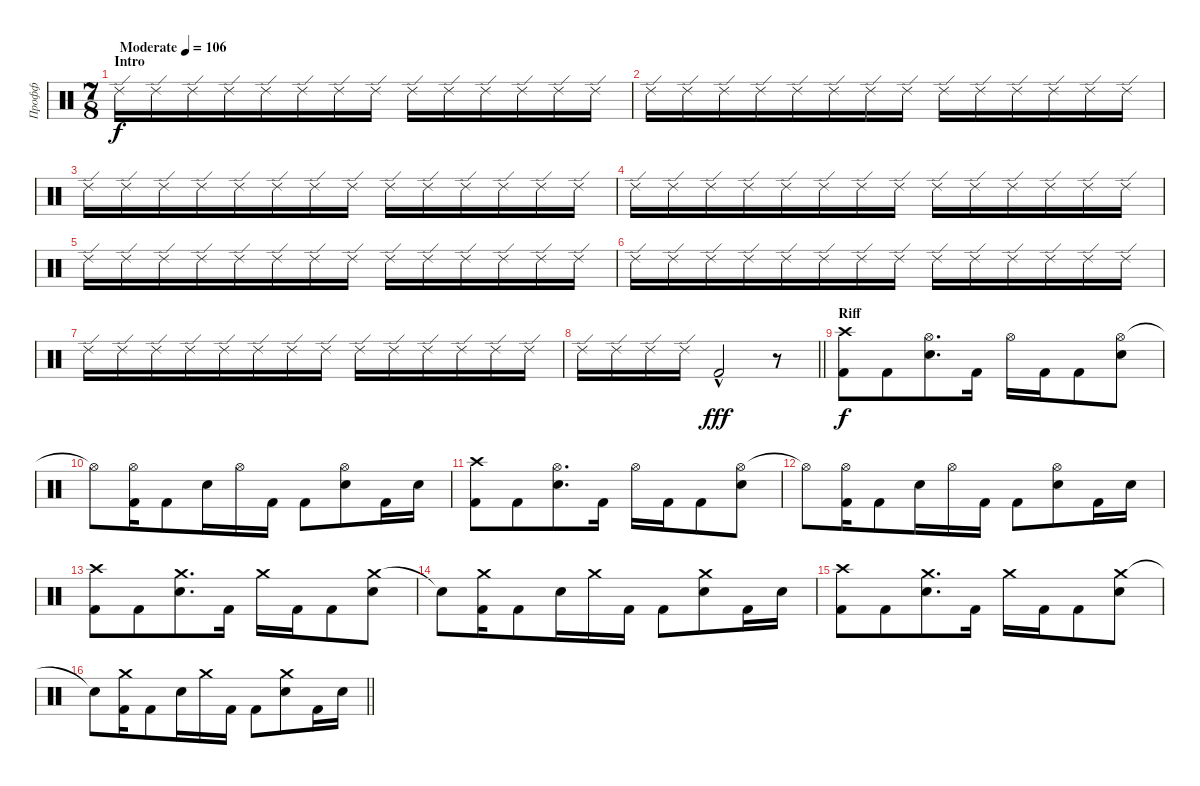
\track ("Профф" "Профф") {instrument percussion}
\staff {score}
\articulation defaults
\ts (7 8)
\section ("" "Intro")
\tempo (106 "Moderate")
\clef neutral
\ks c "Ride (edge) 2".16{dy f} "Ride (edge) 2".16 "Ride (edge) 2".16 "Ride (edge) 2".16 "Ride (edge) 2".16 "Ride (edge) 2".16 "Ride (edge) 2".16 "Ride (edge) 2".16 "Ride (edge) 2".16 "Ride (edge) 2".16 "Ride (edge) 2".16 "Ride (edge) 2".16 "Ride (edge) 2".16 "Ride (edge) 2".16
|
"Ride (edge) 2".16 "Ride (edge) 2".16 "Ride (edge) 2".16 "Ride (edge) 2".16 "Ride (edge) 2".16 "Ride (edge) 2".16 "Ride (edge) 2".16 "Ride (edge) 2".16 "Ride (edge) 2".16 "Ride (edge) 2".16 "Ride (edge) 2".16 "Ride (edge) 2".16 "Ride (edge) 2".16 "Ride (edge) 2".16 |
"Ride (edge) 2".16 "Ride (edge) 2".16 "Ride (edge) 2".16 "Ride (edge) 2".16 "Ride (edge) 2".16 "Ride (edge) 2".16 "Ride (edge) 2".16 "Ride (edge) 2".16 "Ride (edge) 2".16 "Ride (edge) 2".16 "Ride (edge) 2".16 "Ride (edge) 2".16 "Ride (edge) 2".16 "Ride (edge) 2".16 |
"Ride (edge) 2".16 "Ride (edge) 2".16 "Ride (edge) 2".16 "Ride (edge) 2".16 "Ride (edge) 2".16 "Ride (edge) 2".16 "Ride (edge) 2".16 "Ride (edge) 2".16 "Ride (edge) 2".16 "Ride (edge) 2".16 "Ride (edge) 2".16 "Ride (edge) 2".16 "Ride (edge) 2".16 "Ride (edge) 2".16 |
"Ride (edge) 2".16 "Ride (edge) 2".16 "Ride (edge) 2".16 "Ride (edge) 2".16 "Ride (edge) 2".16 "Ride (edge) 2".16 "Ride (edge) 2".16 "Ride (edge) 2".16 "Ride (edge) 2".16 "Ride (edge) 2".16 "Ride (edge) 2".16 "Ride (edge) 2".16 "Ride (edge) 2".16 "Ride (edge) 2".16 |
"Ride (edge) 2".16 "Ride (edge) 2".16 "Ride (edge) 2".16 "Ride (edge) 2".16 "Ride (edge) 2".16 "Ride (edge) 2".16 "Ride (edge) 2".16 "Ride (edge) 2".16 "Ride (edge) 2".16 "Ride (edge) 2".16 "Ride (edge) 2".16 "Ride (edge) 2".16 "Ride (edge) 2".16 "Ride (edge) 2".16 |
"Ride (edge) 2".16 "Ride (edge) 2".16 "Ride (edge) 2".16 "Ride (edge) 2".16 "Ride (edge) 2".16 "Ride (edge) 2".16 "Ride (edge) 2".16 "Ride (edge) 2".16 "Ride (edge) 2".16 "Ride (edge) 2".16 "Ride (edge) 2".16 "Ride (edge) 2".16 "Ride (edge) 2".16 "Ride (edge) 2".16 |
\barLineRight lightlight "Ride (edge) 2".16 "Ride (edge) 2".16 "Ride (edge) 2".16 "Ride (edge) 2".16 "Kick (hit) 2"{hac}.2{dy fff volume 16}
r.8 |
\section ("" "Riff")
("Crash high (hit)" "Kick (hit) 2").8{dy f} "Kick (hit) 2".8 ("Hi-Hat (open)" "Snare (hit) 2").8{d} "Kick (hit) 2".16 "Hi-Hat (open)".16 "Kick (hit) 2".16 "Kick (hit) 2".8 ("Hi-Hat (open)" "Snare (hit) 2").8 |
"Hi-Hat (open)"{t}.8 ("Hi-Hat (open)" "Kick (hit) 2").16 "Kick (hit) 2".8 "Snare (hit) 2".16 "Hi-Hat (open)".16 "Kick (hit) 2".16 "Kick (hit) 2".8 ("Hi-Hat (open)" "Snare (hit) 2").8 "Kick (hit) 2".16 "Snare (hit) 2".16 |
("Crash high (hit)" "Kick (hit) 2").8 "Kick (hit) 2".8 ("Hi-Hat (open)" "Snare (hit) 2").8{d} "Kick (hit) 2".16 "Hi-Hat (open)".16 "Kick (hit) 2".16 "Kick (hit) 2".8 ("Hi-Hat (open)" "Snare (hit) 2").8 |
"Hi-Hat (open)"{t}.8 ("Hi-Hat (open)" "Kick (hit) 2").16 "Kick (hit) 2".8 "Snare (hit) 2".16 "Hi-Hat (open)".16 "Kick (hit) 2".16 "Kick (hit) 2".8 ("Hi-Hat (open)" "Snare (hit) 2").8 "Kick (hit) 2".16 "Snare (hit) 2".16 |
("Crash high (hit)" "Kick (hit) 2").8 "Kick (hit) 2".8 ("Crash medium (hit)" "Snare (hit) 2").8{d} "Kick (hit) 2".16 "Crash medium (hit)".16 "Kick (hit) 2".16 "Kick (hit) 2".8 ("Crash medium (hit)" "Snare (hit) 2").8 |
"Snare (hit)"{t}.8 ("Crash medium (hit)" "Kick (hit) 2").16 "Kick (hit) 2".8 "Snare (hit) 2".16 "Crash medium (hit)".16 "Kick (hit) 2".16 "Kick (hit) 2".8 ("Crash medium (hit)" "Snare (hit) 2").8 "Kick (hit) 2".16 "Snare (hit) 2".16 |
("Crash high (hit)" "Kick (hit) 2").8 "Kick (hit) 2".8 ("Crash medium (hit)" "Snare (hit) 2").8{d} "Kick (hit) 2".16 "Crash medium (hit)".16 "Kick (hit) 2".16 "Kick (hit) 2".8 ("Crash medium (hit)" "Snare (hit) 2").8 |
\barLineRight lightlight "Snare (hit)"{t}.8
("Crash medium (hit)" "Kick (hit) 2").16 "Kick (hit) 2".8 "Snare (hit) 2".16 "Crash medium (hit)".16 "Kick (hit) 2".16 "Kick (hit) 2".8 ("Crash medium (hit)" "Snare (hit) 2").8 "Kick (hit) 2".16 "Snare (hit) 2".16
